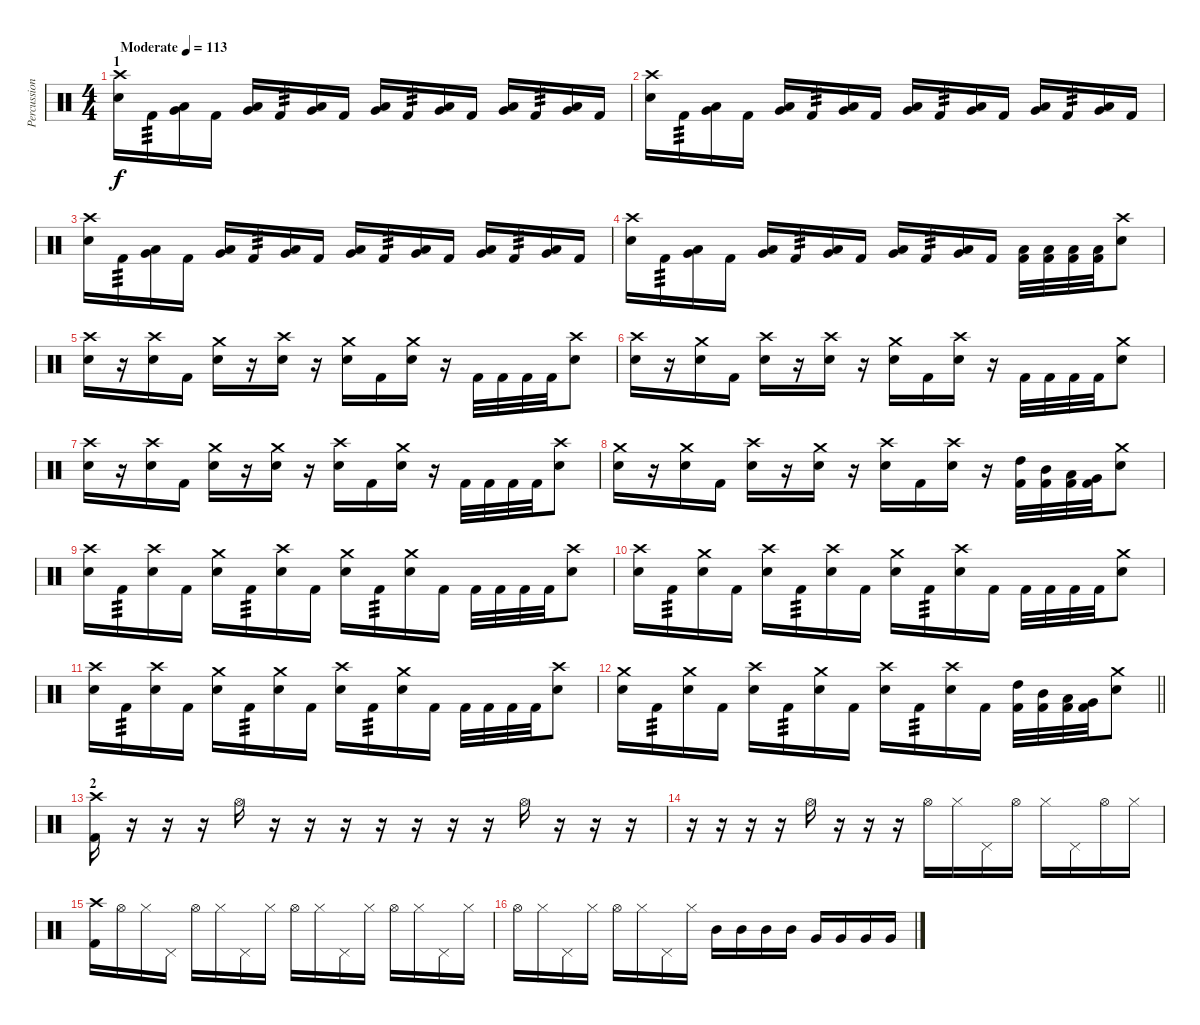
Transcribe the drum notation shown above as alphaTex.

\track ("Percussion" "Percussion") {instrument percussion}
\staff {score}
\articulation defaults
\ts (4 4)
\section ("" "1")
\tempo (113 "Moderate")
\clef neutral
\ks c
("Crash high (hit)" "Electric Snare (hit)").16{dy f} "Kick (hit) 2".16{tp 3} ("Very Low Tom (hit)" "Low Floor Tom (hit)").16 "Kick (hit) 2".16 ("Very Low Tom (hit)" "Low Floor Tom (hit)").16 "Kick (hit) 2".16{tp 3} ("Very Low Tom (hit)" "Low Floor Tom (hit)").16 "Kick (hit) 2".16 ("Very Low Tom (hit)" "Low Floor Tom (hit)").16 "Kick (hit) 2".16{tp 3} ("Very Low Tom (hit)" "Low Floor Tom (hit)").16 "Kick (hit) 2".16 ("Very Low Tom (hit)" "Low Floor Tom (hit)").16 "Kick (hit) 2".16{tp 3} ("Very Low Tom (hit)" "Low Floor Tom (hit)").16 "Kick (hit) 2".16 |
("Crash high (hit)" "Electric Snare (hit)").16 "Kick (hit) 2".16{tp 3} ("Very Low Tom (hit)" "Low Floor Tom (hit)").16 "Kick (hit) 2".16 ("Very Low Tom (hit)" "Low Floor Tom (hit)").16 "Kick (hit) 2".16{tp 3} ("Very Low Tom (hit)" "Low Floor Tom (hit)").16 "Kick (hit) 2".16 ("Very Low Tom (hit)" "Low Floor Tom (hit)").16 "Kick (hit) 2".16{tp 3} ("Very Low Tom (hit)" "Low Floor Tom (hit)").16 "Kick (hit) 2".16 ("Very Low Tom (hit)" "Low Floor Tom (hit)").16 "Kick (hit) 2".16{tp 3} ("Very Low Tom (hit)" "Low Floor Tom (hit)").16 "Kick (hit) 2".16 |
("Crash high (hit)" "Electric Snare (hit)").16 "Kick (hit) 2".16{tp 3} ("Very Low Tom (hit)" "Low Floor Tom (hit)").16 "Kick (hit) 2".16 ("Very Low Tom (hit)" "Low Floor Tom (hit)").16 "Kick (hit) 2".16{tp 3} ("Very Low Tom (hit)" "Low Floor Tom (hit)").16 "Kick (hit) 2".16 ("Very Low Tom (hit)" "Low Floor Tom (hit)").16 "Kick (hit) 2".16{tp 3} ("Very Low Tom (hit)" "Low Floor Tom (hit)").16 "Kick (hit) 2".16 ("Very Low Tom (hit)" "Low Floor Tom (hit)").16 "Kick (hit) 2".16{tp 3} ("Very Low Tom (hit)" "Low Floor Tom (hit)").16 "Kick (hit) 2".16 |
("Crash high (hit)" "Electric Snare (hit)").16 "Kick (hit) 2".16{tp 3} ("Very Low Tom (hit)" "Low Floor Tom (hit)").16 "Kick (hit) 2".16 ("Very Low Tom (hit)" "Low Floor Tom (hit)").16 "Kick (hit) 2".16{tp 3} ("Very Low Tom (hit)" "Low Floor Tom (hit)").16 "Kick (hit) 2".16 ("Very Low Tom (hit)" "Low Floor Tom (hit)").16 "Kick (hit) 2".16{tp 3} ("Very Low Tom (hit)" "Low Floor Tom (hit)").16 "Kick (hit) 2".16 ("Low Floor Tom (hit)" "Kick (hit) 2").32 ("Low Floor Tom (hit)" "Kick (hit) 2").32 ("Low Floor Tom (hit)" "Kick (hit) 2").32 ("Low Floor Tom (hit)" "Kick (hit) 2").32 ("Crash high (hit)" "Electric Snare (hit)").8 |
("Crash high (hit)" "Electric Snare (hit)").16 r.16 ("Crash high (hit)" "Electric Snare (hit)").16 "Kick (hit) 2".16 ("Crash medium (hit)" "Electric Snare (hit)").16 r.16 ("Crash high (hit)" "Electric Snare (hit)").16 r.16 ("Crash medium (hit)" "Electric Snare (hit)").16 "Kick (hit) 2".16 ("Crash medium (hit)" "Electric Snare (hit)").16 r.16 "Kick (hit) 2".32 "Kick (hit) 2".32 "Kick (hit) 2".32 "Kick (hit) 2".32 ("Crash high (hit)" "Electric Snare (hit)").8 |
("Crash high (hit)" "Electric Snare (hit)").16 r.16 ("Crash medium (hit)" "Electric Snare (hit)").16 "Kick (hit) 2".16 ("Crash high (hit)" "Electric Snare (hit)").16 r.16 ("Crash high (hit)" "Electric Snare (hit)").16 r.16 ("Crash medium (hit)" "Electric Snare (hit)").16 "Kick (hit) 2".16 ("Crash high (hit)" "Electric Snare (hit)").16 r.16 "Kick (hit) 2".32 "Kick (hit) 2".32 "Kick (hit) 2".32 "Kick (hit) 2".32 ("Crash medium (hit)" "Electric Snare (hit)").8 |
("Crash high (hit)" "Electric Snare (hit)").16 r.16 ("Crash high (hit)" "Electric Snare (hit)").16 "Kick (hit) 2".16 ("Crash medium (hit)" "Electric Snare (hit)").16 r.16 ("Crash medium (hit)" "Electric Snare (hit)").16 r.16 ("Crash high (hit)" "Electric Snare (hit)").16 "Kick (hit) 2".16 ("Crash medium (hit)" "Electric Snare (hit)").16 r.16 "Kick (hit) 2".32 "Kick (hit) 2".32 "Kick (hit) 2".32 "Kick (hit) 2".32 ("Crash high (hit)" "Electric Snare (hit)").8 |
("Crash medium (hit)" "Electric Snare (hit)").16 r.16 ("Crash medium (hit)" "Electric Snare (hit)").16 "Kick (hit) 2".16 ("Crash high (hit)" "Electric Snare (hit)").16 r.16 ("Crash medium (hit)" "Electric Snare (hit)").16 r.16 ("Crash high (hit)" "Electric Snare (hit)").16 "Kick (hit) 2".16 ("Crash high (hit)" "Electric Snare (hit)").16 r.16 ("High Tom (hit)" "Kick (hit) 2").32 ("Mid Tom (hit)" "Kick (hit) 2").32 ("Low Tom (hit)" "Kick (hit) 2").32 ("Very Low Tom (hit)" "Kick (hit) 2").32 ("Crash medium (hit)" "Electric Snare (hit)").8 |
("Crash high (hit)" "Electric Snare (hit)").16 "Kick (hit) 2".16{tp 3} ("Crash high (hit)" "Electric Snare (hit)").16 "Kick (hit) 2".16 ("Crash medium (hit)" "Electric Snare (hit)").16 "Kick (hit) 2".16{tp 3} ("Crash high (hit)" "Electric Snare (hit)").16 "Kick (hit) 2".16 ("Crash medium (hit)" "Electric Snare (hit)").16 "Kick (hit) 2".16{tp 3} ("Crash medium (hit)" "Electric Snare (hit)").16 "Kick (hit) 2".16 "Kick (hit) 2".32 "Kick (hit) 2".32 "Kick (hit) 2".32 "Kick (hit) 2".32 ("Crash high (hit)" "Electric Snare (hit)").8 |
("Crash high (hit)" "Electric Snare (hit)").16 "Kick (hit) 2".16{tp 3} ("Crash medium (hit)" "Electric Snare (hit)").16 "Kick (hit) 2".16 ("Crash high (hit)" "Electric Snare (hit)").16 "Kick (hit) 2".16{tp 3} ("Crash high (hit)" "Electric Snare (hit)").16 "Kick (hit) 2".16 ("Crash medium (hit)" "Electric Snare (hit)").16 "Kick (hit) 2".16{tp 3} ("Crash high (hit)" "Electric Snare (hit)").16 "Kick (hit) 2".16 "Kick (hit) 2".32 "Kick (hit) 2".32 "Kick (hit) 2".32 "Kick (hit) 2".32 ("Crash medium (hit)" "Electric Snare (hit)").8 |
("Crash high (hit)" "Electric Snare (hit)").16 "Kick (hit) 2".16{tp 3} ("Crash high (hit)" "Electric Snare (hit)").16 "Kick (hit) 2".16 ("Crash medium (hit)" "Electric Snare (hit)").16 "Kick (hit) 2".16{tp 3} ("Crash medium (hit)" "Electric Snare (hit)").16 "Kick (hit) 2".16 ("Crash high (hit)" "Electric Snare (hit)").16 "Kick (hit) 2".16{tp 3} ("Crash medium (hit)" "Electric Snare (hit)").16 "Kick (hit) 2".16 "Kick (hit) 2".32 "Kick (hit) 2".32 "Kick (hit) 2".32 "Kick (hit) 2".32 ("Crash high (hit)" "Electric Snare (hit)").8 |
\barLineRight lightlight
("Crash medium (hit)" "Electric Snare (hit)").16 "Kick (hit) 2".16{tp 3} ("Crash medium (hit)" "Electric Snare (hit)").16 "Kick (hit) 2".16 ("Crash high (hit)" "Electric Snare (hit)").16 "Kick (hit) 2".16{tp 3} ("Crash medium (hit)" "Electric Snare (hit)").16 "Kick (hit) 2".16 ("Crash high (hit)" "Electric Snare (hit)").16 "Kick (hit) 2".16{tp 3} ("Crash high (hit)" "Electric Snare (hit)").16 "Kick (hit) 2".16 ("High Tom (hit)" "Kick (hit) 2").32 ("Mid Tom (hit)" "Kick (hit) 2").32 ("Low Tom (hit)" "Kick (hit) 2").32 ("Very Low Tom (hit)" "Kick (hit) 2").32 ("Crash medium (hit)" "Electric Snare (hit)").8 |
\section ("" "2")
("Crash high (hit)" "Kick (hit) 2").16 r.16 r.16 r.16 "Hi-Hat (open)".16 r.16 r.16 r.16 r.16 r.16 r.16 r.16 "Hi-Hat (open)".16 r.16 r.16 r.16 |
r.16 r.16 r.16 r.16 "Hi-Hat (open)".16 r.16 r.16 r.16 "Hi-Hat (open)".16 "Hi-Hat (closed)".16 "Pedal Hi-Hat (hit)".16 "Hi-Hat (open)".16 "Hi-Hat (closed)".16 "Pedal Hi-Hat (hit)".16 "Hi-Hat (open)".16 "Hi-Hat (closed)".16 |
("Crash high (hit)" "Kick (hit) 2").16 "Hi-Hat (open)".16 "Hi-Hat (closed)".16 "Pedal Hi-Hat (hit)".16 "Hi-Hat (open)".16 "Hi-Hat (closed)".16 "Pedal Hi-Hat (hit)".16 "Hi-Hat (closed)".16 "Hi-Hat (open)".16 "Hi-Hat (closed)".16 "Pedal Hi-Hat (hit)".16 "Hi-Hat (closed)".16 "Hi-Hat (open)".16 "Hi-Hat (closed)".16 "Pedal Hi-Hat (hit)".16 "Hi-Hat (closed)".16 |
"Hi-Hat (open)".16 "Hi-Hat (closed)".16 "Pedal Hi-Hat (hit)".16 "Hi-Hat (closed)".16 "Hi-Hat (open)".16 "Hi-Hat (closed)".16 "Pedal Hi-Hat (hit)".16 "Hi-Hat (closed)".16 "Mid Tom (hit)".16 "Mid Tom (hit)".16 "Mid Tom (hit)".16 "Mid Tom (hit)".16 "Very Low Tom (hit)".16 "Very Low Tom (hit)".16 "Very Low Tom (hit)".16 "Very Low Tom (hit)".16
